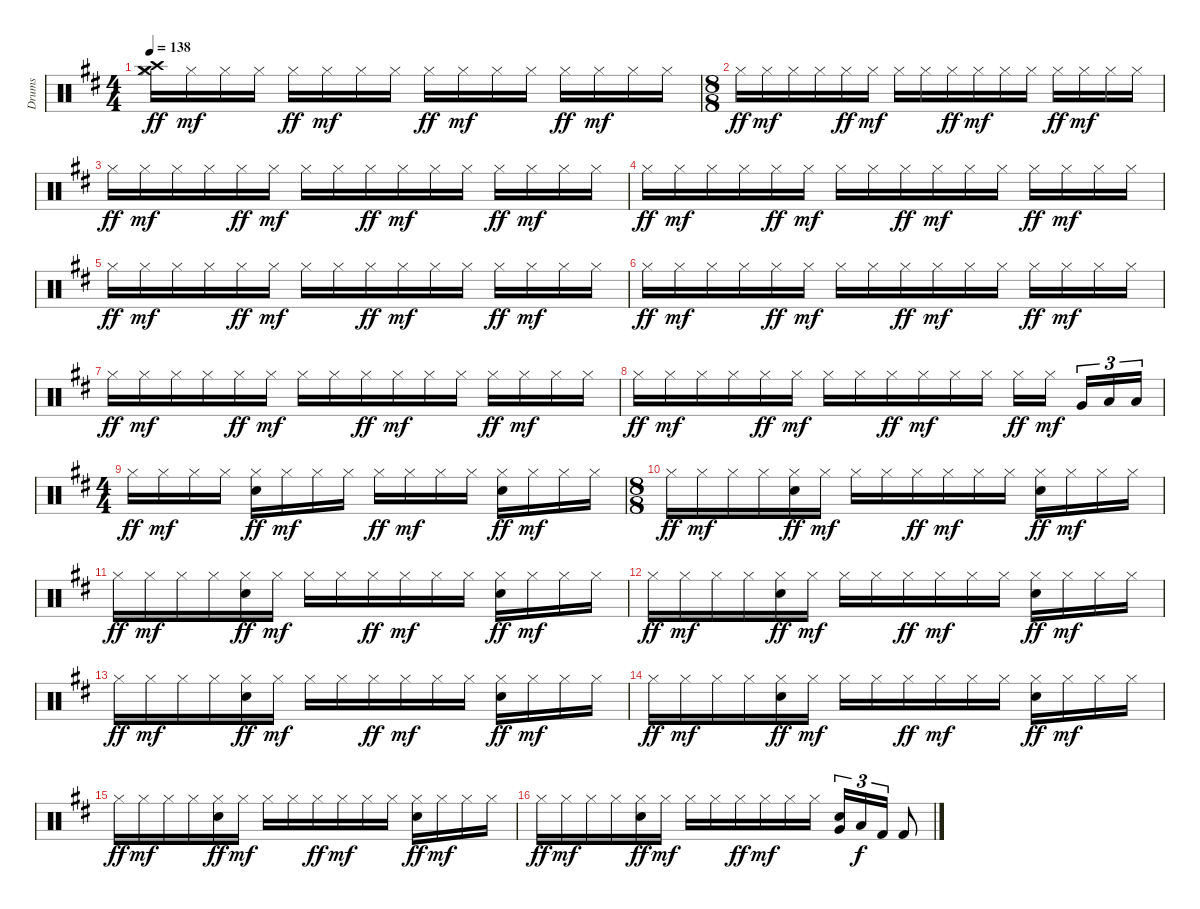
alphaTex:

\track ("Drums" "Drums") {instrument percussion}
\staff {score}
\articulation defaults
\ts (4 4)
\tempo 138
\clef neutral
\ks d
("Crash high (hit)" "Crash medium (hit)" "Hi-Hat (closed)").16{dy ff} "Hi-Hat (closed)".16{dy mf} "Hi-Hat (closed)".16 "Hi-Hat (closed)".16 "Hi-Hat (closed)".16{dy ff} "Hi-Hat (closed)".16{dy mf} "Hi-Hat (closed)".16 "Hi-Hat (closed)".16 "Hi-Hat (closed)".16{dy ff} "Hi-Hat (closed)".16{dy mf} "Hi-Hat (closed)".16 "Hi-Hat (closed)".16 "Hi-Hat (closed)".16{dy ff} "Hi-Hat (closed)".16{dy mf} "Hi-Hat (closed)".16 "Hi-Hat (closed)".16 |
\ts (8 8)
"Hi-Hat (closed)".16{dy ff} "Hi-Hat (closed)".16{dy mf} "Hi-Hat (closed)".16 "Hi-Hat (closed)".16 "Hi-Hat (closed)".16{dy ff} "Hi-Hat (closed)".16{dy mf} "Hi-Hat (closed)".16 "Hi-Hat (closed)".16 "Hi-Hat (closed)".16{dy ff} "Hi-Hat (closed)".16{dy mf} "Hi-Hat (closed)".16 "Hi-Hat (closed)".16 "Hi-Hat (closed)".16{dy ff} "Hi-Hat (closed)".16{dy mf} "Hi-Hat (closed)".16 "Hi-Hat (closed)".16 |
"Hi-Hat (closed)".16{dy ff} "Hi-Hat (closed)".16{dy mf} "Hi-Hat (closed)".16 "Hi-Hat (closed)".16 "Hi-Hat (closed)".16{dy ff} "Hi-Hat (closed)".16{dy mf} "Hi-Hat (closed)".16 "Hi-Hat (closed)".16 "Hi-Hat (closed)".16{dy ff} "Hi-Hat (closed)".16{dy mf} "Hi-Hat (closed)".16 "Hi-Hat (closed)".16 "Hi-Hat (closed)".16{dy ff} "Hi-Hat (closed)".16{dy mf} "Hi-Hat (closed)".16 "Hi-Hat (closed)".16 |
"Hi-Hat (closed)".16{dy ff} "Hi-Hat (closed)".16{dy mf} "Hi-Hat (closed)".16 "Hi-Hat (closed)".16 "Hi-Hat (closed)".16{dy ff} "Hi-Hat (closed)".16{dy mf} "Hi-Hat (closed)".16 "Hi-Hat (closed)".16 "Hi-Hat (closed)".16{dy ff} "Hi-Hat (closed)".16{dy mf} "Hi-Hat (closed)".16 "Hi-Hat (closed)".16 "Hi-Hat (closed)".16{dy ff} "Hi-Hat (closed)".16{dy mf} "Hi-Hat (closed)".16 "Hi-Hat (closed)".16 |
"Hi-Hat (closed)".16{dy ff} "Hi-Hat (closed)".16{dy mf} "Hi-Hat (closed)".16 "Hi-Hat (closed)".16 "Hi-Hat (closed)".16{dy ff} "Hi-Hat (closed)".16{dy mf} "Hi-Hat (closed)".16 "Hi-Hat (closed)".16 "Hi-Hat (closed)".16{dy ff} "Hi-Hat (closed)".16{dy mf} "Hi-Hat (closed)".16 "Hi-Hat (closed)".16 "Hi-Hat (closed)".16{dy ff} "Hi-Hat (closed)".16{dy mf} "Hi-Hat (closed)".16 "Hi-Hat (closed)".16 |
"Hi-Hat (closed)".16{dy ff} "Hi-Hat (closed)".16{dy mf} "Hi-Hat (closed)".16 "Hi-Hat (closed)".16 "Hi-Hat (closed)".16{dy ff} "Hi-Hat (closed)".16{dy mf} "Hi-Hat (closed)".16 "Hi-Hat (closed)".16 "Hi-Hat (closed)".16{dy ff} "Hi-Hat (closed)".16{dy mf} "Hi-Hat (closed)".16 "Hi-Hat (closed)".16 "Hi-Hat (closed)".16{dy ff} "Hi-Hat (closed)".16{dy mf} "Hi-Hat (closed)".16 "Hi-Hat (closed)".16 |
"Hi-Hat (closed)".16{dy ff} "Hi-Hat (closed)".16{dy mf} "Hi-Hat (closed)".16 "Hi-Hat (closed)".16 "Hi-Hat (closed)".16{dy ff} "Hi-Hat (closed)".16{dy mf} "Hi-Hat (closed)".16 "Hi-Hat (closed)".16 "Hi-Hat (closed)".16{dy ff} "Hi-Hat (closed)".16{dy mf} "Hi-Hat (closed)".16 "Hi-Hat (closed)".16 "Hi-Hat (closed)".16{dy ff} "Hi-Hat (closed)".16{dy mf} "Hi-Hat (closed)".16 "Hi-Hat (closed)".16 |
"Hi-Hat (closed)".16{dy ff} "Hi-Hat (closed)".16{dy mf} "Hi-Hat (closed)".16 "Hi-Hat (closed)".16 "Hi-Hat (closed)".16{dy ff} "Hi-Hat (closed)".16{dy mf} "Hi-Hat (closed)".16 "Hi-Hat (closed)".16 "Hi-Hat (closed)".16{dy ff} "Hi-Hat (closed)".16{dy mf} "Hi-Hat (closed)".16 "Hi-Hat (closed)".16 "Hi-Hat (closed)".16{dy ff} "Hi-Hat (closed)".16{dy mf} "Very Low Tom (hit)".16{tu (3 2)} "Low Floor Tom (hit)".16{tu (3 2)} "Low Floor Tom (hit)".16{tu (3 2)} |
\ts (4 4)
"Hi-Hat (closed)".16{dy ff} "Hi-Hat (closed)".16{dy mf} "Hi-Hat (closed)".16 "Hi-Hat (closed)".16 ("Hand Clap (hit)" "Hi-Hat (closed)").16{dy ff} "Hi-Hat (closed)".16{dy mf} "Hi-Hat (closed)".16 "Hi-Hat (closed)".16 "Hi-Hat (closed)".16{dy ff} "Hi-Hat (closed)".16{dy mf} "Hi-Hat (closed)".16 "Hi-Hat (closed)".16 ("Hand Clap (hit)" "Hi-Hat (closed)").16{dy ff} "Hi-Hat (closed)".16{dy mf} "Hi-Hat (closed)".16 "Hi-Hat (closed)".16 |
\ts (8 8)
"Hi-Hat (closed)".16{dy ff} "Hi-Hat (closed)".16{dy mf} "Hi-Hat (closed)".16 "Hi-Hat (closed)".16 ("Hand Clap (hit)" "Hi-Hat (closed)").16{dy ff} "Hi-Hat (closed)".16{dy mf} "Hi-Hat (closed)".16 "Hi-Hat (closed)".16 "Hi-Hat (closed)".16{dy ff} "Hi-Hat (closed)".16{dy mf} "Hi-Hat (closed)".16 "Hi-Hat (closed)".16 ("Hand Clap (hit)" "Hi-Hat (closed)").16{dy ff} "Hi-Hat (closed)".16{dy mf} "Hi-Hat (closed)".16 "Hi-Hat (closed)".16 |
"Hi-Hat (closed)".16{dy ff} "Hi-Hat (closed)".16{dy mf} "Hi-Hat (closed)".16 "Hi-Hat (closed)".16 ("Hand Clap (hit)" "Hi-Hat (closed)").16{dy ff} "Hi-Hat (closed)".16{dy mf} "Hi-Hat (closed)".16 "Hi-Hat (closed)".16 "Hi-Hat (closed)".16{dy ff} "Hi-Hat (closed)".16{dy mf} "Hi-Hat (closed)".16 "Hi-Hat (closed)".16 ("Hand Clap (hit)" "Hi-Hat (closed)").16{dy ff} "Hi-Hat (closed)".16{dy mf} "Hi-Hat (closed)".16 "Hi-Hat (closed)".16 |
"Hi-Hat (closed)".16{dy ff} "Hi-Hat (closed)".16{dy mf} "Hi-Hat (closed)".16 "Hi-Hat (closed)".16 ("Hand Clap (hit)" "Hi-Hat (closed)").16{dy ff} "Hi-Hat (closed)".16{dy mf} "Hi-Hat (closed)".16 "Hi-Hat (closed)".16 "Hi-Hat (closed)".16{dy ff} "Hi-Hat (closed)".16{dy mf} "Hi-Hat (closed)".16 "Hi-Hat (closed)".16 ("Hand Clap (hit)" "Hi-Hat (closed)").16{dy ff} "Hi-Hat (closed)".16{dy mf} "Hi-Hat (closed)".16 "Hi-Hat (closed)".16 |
"Hi-Hat (closed)".16{dy ff} "Hi-Hat (closed)".16{dy mf} "Hi-Hat (closed)".16 "Hi-Hat (closed)".16 ("Hand Clap (hit)" "Hi-Hat (closed)").16{dy ff} "Hi-Hat (closed)".16{dy mf} "Hi-Hat (closed)".16 "Hi-Hat (closed)".16 "Hi-Hat (closed)".16{dy ff} "Hi-Hat (closed)".16{dy mf} "Hi-Hat (closed)".16 "Hi-Hat (closed)".16 ("Hand Clap (hit)" "Hi-Hat (closed)").16{dy ff} "Hi-Hat (closed)".16{dy mf} "Hi-Hat (closed)".16 "Hi-Hat (closed)".16 |
"Hi-Hat (closed)".16{dy ff} "Hi-Hat (closed)".16{dy mf} "Hi-Hat (closed)".16 "Hi-Hat (closed)".16 ("Hand Clap (hit)" "Hi-Hat (closed)").16{dy ff} "Hi-Hat (closed)".16{dy mf} "Hi-Hat (closed)".16 "Hi-Hat (closed)".16 "Hi-Hat (closed)".16{dy ff} "Hi-Hat (closed)".16{dy mf} "Hi-Hat (closed)".16 "Hi-Hat (closed)".16 ("Hand Clap (hit)" "Hi-Hat (closed)").16{dy ff} "Hi-Hat (closed)".16{dy mf} "Hi-Hat (closed)".16 "Hi-Hat (closed)".16 |
"Hi-Hat (closed)".16{dy ff} "Hi-Hat (closed)".16{dy mf} "Hi-Hat (closed)".16 "Hi-Hat (closed)".16 ("Hand Clap (hit)" "Hi-Hat (closed)").16{dy ff} "Hi-Hat (closed)".16{dy mf} "Hi-Hat (closed)".16 "Hi-Hat (closed)".16 "Hi-Hat (closed)".16{dy ff} "Hi-Hat (closed)".16{dy mf} "Hi-Hat (closed)".16 "Hi-Hat (closed)".16 ("Hand Clap (hit)" "Hi-Hat (closed)").16{dy ff} "Hi-Hat (closed)".16{dy mf} "Hi-Hat (closed)".16 "Hi-Hat (closed)".16 |
"Hi-Hat (closed)".16{dy ff} "Hi-Hat (closed)".16{dy mf} "Hi-Hat (closed)".16 "Hi-Hat (closed)".16 ("Hand Clap (hit)" "Hi-Hat (closed)").16{dy ff} "Hi-Hat (closed)".16{dy mf} "Hi-Hat (closed)".16 "Hi-Hat (closed)".16 "Hi-Hat (closed)".16{dy ff} "Hi-Hat (closed)".16{dy mf} "Hi-Hat (closed)".16 "Hi-Hat (closed)".16 ("Hand Clap (hit)" "Very Low Tom (hit)").16{tu (3 2)} "Low Floor Tom (hit)".16{tu (3 2) dy f} "Kick (hit) 2".16{tu (3 2)} "Kick (hit) 2".8
